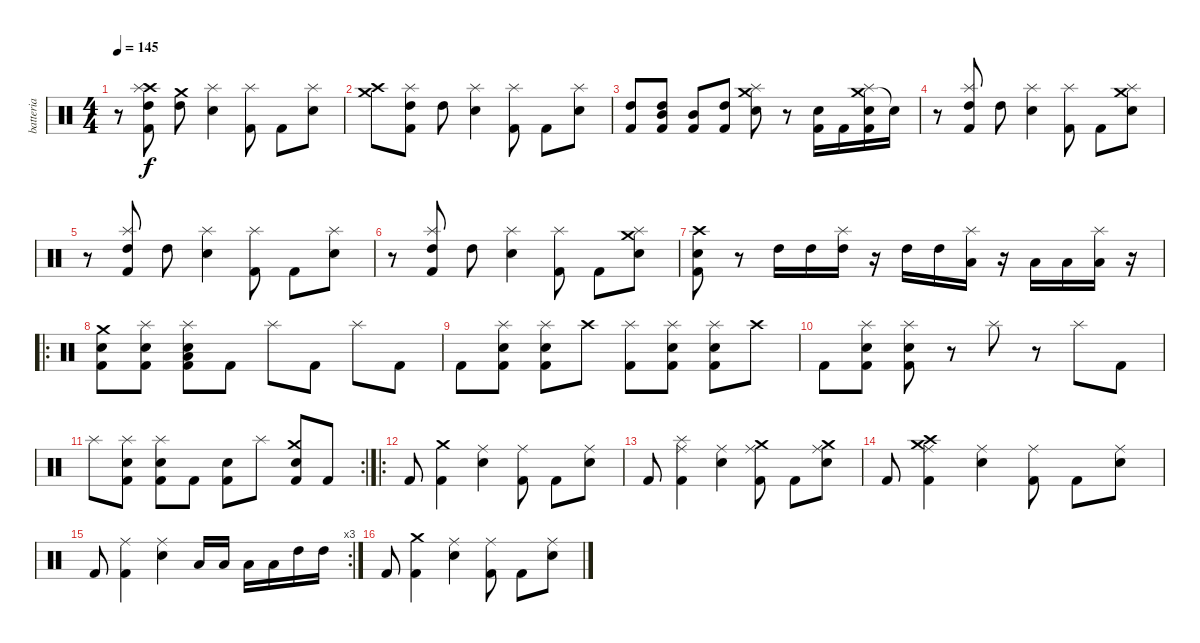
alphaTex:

\track ("batteria" "batteria") {instrument percussion}
\staff {score}
\articulation defaults
\ts (4 4)
\tempo 145
\clef neutral
\ks c
r.8{dy f} ("Crash high (hit)" "High Tom (hit)" "Splash (hit)" "Kick (hit) 2").8 ("Crash medium (hit)" "High Tom (hit)").8 ("Splash (hit)" "Electric Snare (hit)").4 ("Splash (hit)" "Kick (hit) 2").8 "Kick (hit) 2".8 ("Splash (hit)" "Electric Snare (hit)").8 |
("Crash medium (hit)" "Crash high (hit)").8 ("High Tom (hit)" "Splash (hit)" "Kick (hit) 2").8 "High Tom (hit)".8 ("Splash (hit)" "Electric Snare (hit)").4 ("Splash (hit)" "Kick (hit) 2").8 "Kick (hit) 2".8 ("Splash (hit)" "Electric Snare (hit)").8 |
("High Tom (hit)" "Kick (hit) 2").8 ("High Tom (hit)" "Kick (hit) 2" "Mid Tom (hit)").8 ("Kick (hit) 2" "Mid Tom (hit)").8 ("Kick (hit) 2" "High Tom (hit)").8 ("Crash medium (hit)" "Splash (hit)" "Electric Snare (hit)").8 r.8 ("Electric Snare (hit)" "Kick (hit) 2").16 "Kick (hit) 2".16 ("Crash medium (hit)" "Kick (hit) 2" "Splash (hit)" "Electric Snare (hit)").16 "Snare (hit)"{t}.16 |
r.8 ("High Tom (hit)" "Splash (hit)" "Kick (hit) 2").8 "High Tom (hit)".8 ("Splash (hit)" "Electric Snare (hit)").4 ("Splash (hit)" "Kick (hit) 2").8 "Kick (hit) 2".8 ("Crash medium (hit)" "Splash (hit)" "Electric Snare (hit)").8 |
r.8 ("High Tom (hit)" "Splash (hit)" "Kick (hit) 2").8 "High Tom (hit)".8 ("Splash (hit)" "Electric Snare (hit)").4 ("Splash (hit)" "Kick (hit) 2").8 "Kick (hit) 2".8 ("Splash (hit)" "Electric Snare (hit)").8 |
r.8 ("High Tom (hit)" "Splash (hit)" "Kick (hit) 2").8 "High Tom (hit)".8 ("Splash (hit)" "Electric Snare (hit)").4 ("Splash (hit)" "Kick (hit) 2").8 "Kick (hit) 2".8 ("Crash medium (hit)" "Splash (hit)" "Electric Snare (hit)").8 |
("Kick (hit) 2" "Electric Snare (hit)" "Crash high (hit)").8 r.8 "High Tom (hit)".16 "High Tom (hit)".16 ("Splash (hit)" "High Tom (hit)").16 r.16 "High Tom (hit)".16 "High Tom (hit)".16 ("Splash (hit)" "Low Tom (hit)").16 r.16 "Low Tom (hit)".16 "Low Tom (hit)".16 ("Splash (hit)" "Low Tom (hit)").16 r.16 |
\ro
("Electric Snare (hit)" "Crash medium (hit)" "Kick (hit) 2").8 ("Kick (hit) 2" "Splash (hit)" "Electric Snare (hit)").8 ("Low Tom (hit)" "Kick (hit) 2" "Splash (hit)" "Electric Snare (hit)").8 "Kick (hit) 2".8 "Splash (hit)".8 "Kick (hit) 2".8 "Splash (hit)".8 "Kick (hit) 2".8 |
"Kick (hit) 2".8 ("Kick (hit) 2" "Splash (hit)" "Electric Snare (hit)").8 ("Kick (hit) 2" "Splash (hit)" "Electric Snare (hit)").8 "Crash high (hit)".8 ("Splash (hit)" "Kick (hit) 2").8 ("Kick (hit) 2" "Splash (hit)" "Electric Snare (hit)").8 ("Kick (hit) 2" "Splash (hit)" "Electric Snare (hit)").8 "Crash high (hit)".8 |
"Kick (hit) 2".8 ("Kick (hit) 2" "Splash (hit)" "Electric Snare (hit)").8 ("Kick (hit) 2" "Splash (hit)" "Electric Snare (hit)").8 r.8 "Splash (hit)".8 r.8 "Splash (hit)".8 "Kick (hit) 2".8 |
\rc 2 "Splash (hit)".8
("Kick (hit) 2" "Splash (hit)" "Electric Snare (hit)").8 ("Kick (hit) 2" "Splash (hit)" "Electric Snare (hit)").8 "Kick (hit) 2".8 ("Kick (hit) 2" "Electric Snare (hit)").8 "Splash (hit)".8 ("Crash medium (hit)" "Kick (hit) 2" "Electric Snare (hit)").8 "Kick (hit) 2".8 |
\ro "Kick (hit) 2".8
("Crash medium (hit)" "Kick (hit) 2").4 ("Ride (middle)" "Electric Snare (hit)").4 ("Ride (middle)" "Kick (hit) 2").8 "Kick (hit) 2".8 ("Ride (middle)" "Electric Snare (hit)").8 |
"Kick (hit) 2".8 ("Splash (hit)" "Kick (hit) 2" "Ride (middle)").4 ("Ride (middle)" "Electric Snare (hit)").4 ("Crash medium (hit)" "Ride (middle)" "Kick (hit) 2").8 "Kick (hit) 2".8 ("Crash medium (hit)" "Ride (middle)" "Electric Snare (hit)").8 |
"Kick (hit) 2".8 ("Crash high (hit)" "Crash medium (hit)" "Ride (middle)" "Kick (hit) 2").4 ("Ride (middle)" "Electric Snare (hit)").4 ("Ride (middle)" "Kick (hit) 2").8 "Kick (hit) 2".8 ("Ride (middle)" "Electric Snare (hit)").8 |
\rc 3 "Kick (hit) 2".8
("Ride (middle)" "Kick (hit) 2").4 ("Ride (middle)" "Electric Snare (hit)").4 "Low Tom (hit)".16 "Low Tom (hit)".16 "Low Tom (hit)".16 "Low Tom (hit)".16 "High Tom (hit)".16 "High Tom (hit)".16 |
"Kick (hit) 2".8 ("Crash medium (hit)" "Kick (hit) 2").4 ("Ride (middle)" "Electric Snare (hit)").4 ("Ride (middle)" "Kick (hit) 2").8 "Kick (hit) 2".8 ("Ride (middle)" "Electric Snare (hit)").8
